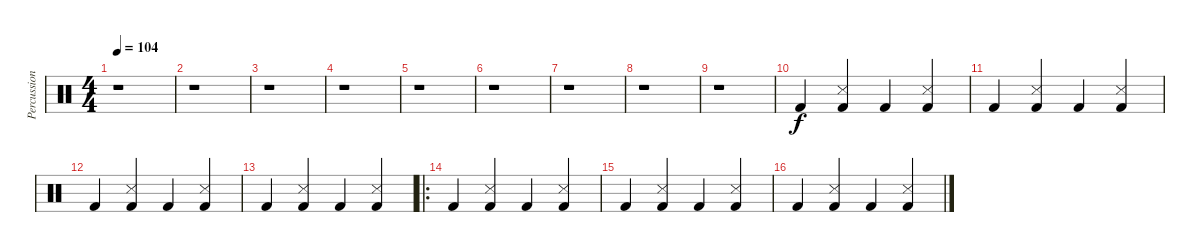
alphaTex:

\track ("Percussions" "Percussion") {instrument percussion}
\staff {score}
\articulation defaults
\ts (4 4)
\tempo 104
\clef neutral
\ks c
r.1{dy f} |
r.1 |
r.1 |
r.1 |
r.1 |
r.1 |
r.1 |
r.1 |
r.1 |
"Kick (hit) 2".4 ("Snare (side stick) 3" "Kick (hit) 2").4 "Kick (hit) 2".4 ("Snare (side stick) 3" "Kick (hit) 2").4 |
"Kick (hit) 2".4 ("Snare (side stick) 3" "Kick (hit) 2").4 "Kick (hit) 2".4 ("Snare (side stick) 3" "Kick (hit) 2").4 |
"Kick (hit) 2".4 ("Snare (side stick) 3" "Kick (hit) 2").4 "Kick (hit) 2".4 ("Snare (side stick) 3" "Kick (hit) 2").4 |
"Kick (hit) 2".4 ("Snare (side stick) 3" "Kick (hit) 2").4 "Kick (hit) 2".4 ("Snare (side stick) 3" "Kick (hit) 2").4 |
\ro "Kick (hit) 2".4
("Snare (side stick) 3" "Kick (hit) 2").4 "Kick (hit) 2".4 ("Snare (side stick) 3" "Kick (hit) 2").4 |
"Kick (hit) 2".4 ("Snare (side stick) 3" "Kick (hit) 2").4 "Kick (hit) 2".4 ("Snare (side stick) 3" "Kick (hit) 2").4 |
"Kick (hit) 2".4 ("Snare (side stick) 3" "Kick (hit) 2").4 "Kick (hit) 2".4 ("Snare (side stick) 3" "Kick (hit) 2").4
